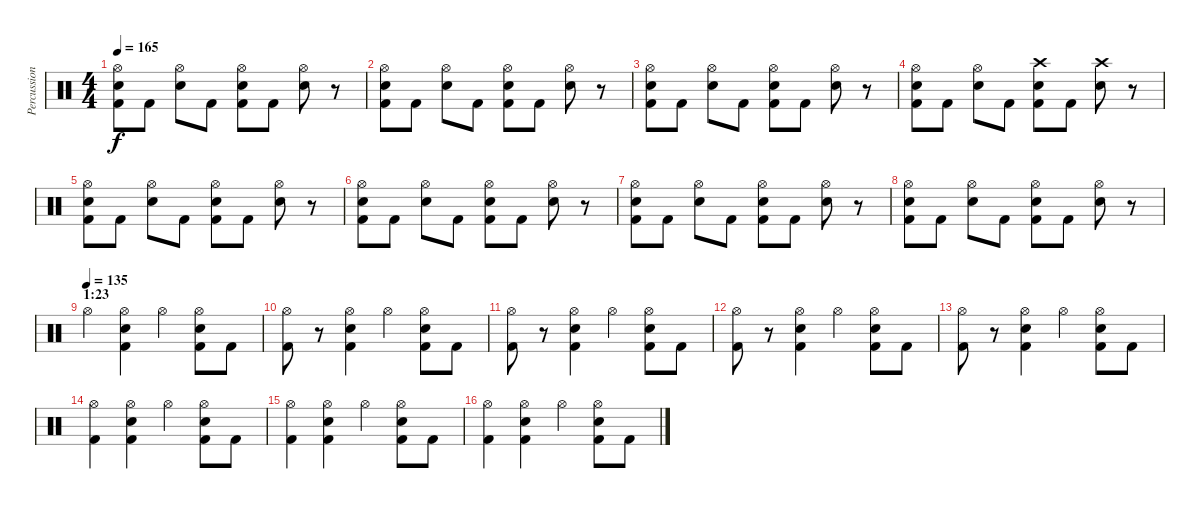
\track ("Percussion" "Percussion") {instrument percussion}
\staff {score}
\articulation defaults
\ts (4 4)
\tempo 165
\clef neutral
\ks c
("Kick (hit) 2" "Electric Snare (hit)" "Hi-Hat (open)").8{dy f} "Kick (hit) 2".8 ("Electric Snare (hit)" "Hi-Hat (open)").8 "Kick (hit) 2".8 ("Kick (hit) 2" "Electric Snare (hit)" "Hi-Hat (open)").8 "Kick (hit) 2".8 ("Electric Snare (hit)" "Hi-Hat (open)").8 r.8 |
("Kick (hit) 2" "Electric Snare (hit)" "Hi-Hat (open)").8 "Kick (hit) 2".8 ("Electric Snare (hit)" "Hi-Hat (open)").8 "Kick (hit) 2".8 ("Kick (hit) 2" "Electric Snare (hit)" "Hi-Hat (open)").8 "Kick (hit) 2".8 ("Electric Snare (hit)" "Hi-Hat (open)").8 r.8 |
("Kick (hit) 2" "Electric Snare (hit)" "Hi-Hat (open)").8 "Kick (hit) 2".8 ("Electric Snare (hit)" "Hi-Hat (open)").8 "Kick (hit) 2".8 ("Kick (hit) 2" "Electric Snare (hit)" "Hi-Hat (open)").8 "Kick (hit) 2".8 ("Electric Snare (hit)" "Hi-Hat (open)").8 r.8 |
("Kick (hit) 2" "Electric Snare (hit)" "Hi-Hat (open)").8 "Kick (hit) 2".8 ("Electric Snare (hit)" "Hi-Hat (open)").8 "Kick (hit) 2".8 ("Kick (hit) 2" "Electric Snare (hit)" "Crash high (hit)").8 "Kick (hit) 2".8 ("Electric Snare (hit)" "Crash high (hit)").8 r.8 |
("Kick (hit) 2" "Electric Snare (hit)" "Hi-Hat (open)").8 "Kick (hit) 2".8 ("Electric Snare (hit)" "Hi-Hat (open)").8 "Kick (hit) 2".8 ("Kick (hit) 2" "Electric Snare (hit)" "Hi-Hat (open)").8 "Kick (hit) 2".8 ("Electric Snare (hit)" "Hi-Hat (open)").8 r.8 |
("Kick (hit) 2" "Electric Snare (hit)" "Hi-Hat (open)").8 "Kick (hit) 2".8 ("Electric Snare (hit)" "Hi-Hat (open)").8 "Kick (hit) 2".8 ("Kick (hit) 2" "Electric Snare (hit)" "Hi-Hat (open)").8 "Kick (hit) 2".8 ("Electric Snare (hit)" "Hi-Hat (open)").8 r.8 |
("Kick (hit) 2" "Electric Snare (hit)" "Hi-Hat (open)").8 "Kick (hit) 2".8 ("Electric Snare (hit)" "Hi-Hat (open)").8 "Kick (hit) 2".8 ("Kick (hit) 2" "Electric Snare (hit)" "Hi-Hat (open)").8 "Kick (hit) 2".8 ("Electric Snare (hit)" "Hi-Hat (open)").8 r.8 |
("Kick (hit) 2" "Electric Snare (hit)" "Hi-Hat (open)").8 "Kick (hit) 2".8 ("Electric Snare (hit)" "Hi-Hat (open)").8 "Kick (hit) 2".8 ("Kick (hit) 2" "Electric Snare (hit)" "Hi-Hat (open)").8 "Kick (hit) 2".8 ("Electric Snare (hit)" "Hi-Hat (open)").8 r.8 |
\section ("" "1:23")
\tempo (135)
"Hi-Hat (open)".4 ("Hi-Hat (open)" "Electric Snare (hit)" "Kick (hit) 2").4 "Hi-Hat (open)".4 ("Hi-Hat (open)" "Electric Snare (hit)" "Kick (hit) 2").8 "Kick (hit) 2".8 |
("Hi-Hat (open)" "Kick (hit) 2").8 r.8 ("Hi-Hat (open)" "Electric Snare (hit)" "Kick (hit) 2").4 "Hi-Hat (open)".4 ("Hi-Hat (open)" "Electric Snare (hit)" "Kick (hit) 2").8 "Kick (hit) 2".8 |
("Hi-Hat (open)" "Kick (hit) 2").8 r.8 ("Hi-Hat (open)" "Electric Snare (hit)" "Kick (hit) 2").4 "Hi-Hat (open)".4 ("Hi-Hat (open)" "Electric Snare (hit)" "Kick (hit) 2").8 "Kick (hit) 2".8 |
("Hi-Hat (open)" "Kick (hit) 2").8 r.8 ("Hi-Hat (open)" "Electric Snare (hit)" "Kick (hit) 2").4 "Hi-Hat (open)".4 ("Hi-Hat (open)" "Electric Snare (hit)" "Kick (hit) 2").8 "Kick (hit) 2".8 |
("Hi-Hat (open)" "Kick (hit) 2").8 r.8 ("Hi-Hat (open)" "Electric Snare (hit)" "Kick (hit) 2").4 "Hi-Hat (open)".4 ("Hi-Hat (open)" "Electric Snare (hit)" "Kick (hit) 2").8 "Kick (hit) 2".8 |
("Hi-Hat (open)" "Kick (hit) 2").4 ("Hi-Hat (open)" "Electric Snare (hit)" "Kick (hit) 2").4 "Hi-Hat (open)".4 ("Hi-Hat (open)" "Electric Snare (hit)" "Kick (hit) 2").8 "Kick (hit) 2".8 |
("Hi-Hat (open)" "Kick (hit) 2").4 ("Hi-Hat (open)" "Electric Snare (hit)" "Kick (hit) 2").4 "Hi-Hat (open)".4 ("Hi-Hat (open)" "Electric Snare (hit)" "Kick (hit) 2").8 "Kick (hit) 2".8 |
("Hi-Hat (open)" "Kick (hit) 2").4 ("Hi-Hat (open)" "Electric Snare (hit)" "Kick (hit) 2").4 "Hi-Hat (open)".4 ("Hi-Hat (open)" "Electric Snare (hit)" "Kick (hit) 2").8 "Kick (hit) 2".8
